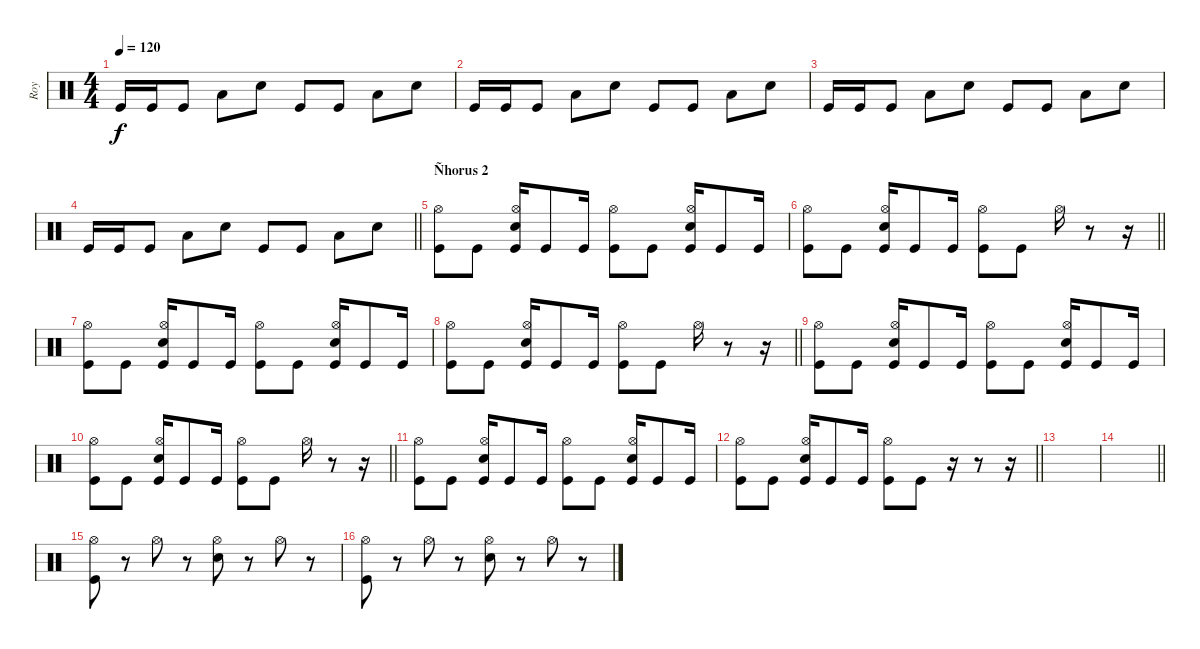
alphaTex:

\track ("Roy" "Roy") {instrument percussion}
\staff {score}
\articulation defaults
\ts (4 4)
\section ("" "")
\tempo 120
\clef neutral
\ks c "Kick (hit)".16{dy f} "Kick (hit)".16 "Kick (hit)".8 "Low Tom (hit)".8 "Metronome (bell)".8 "Kick (hit)".8 "Kick (hit)".8 "Low Tom (hit)".8 "Metronome (bell)".8
|
"Kick (hit)".16 "Kick (hit)".16 "Kick (hit)".8 "Low Tom (hit)".8 "Metronome (bell)".8 "Kick (hit)".8 "Kick (hit)".8 "Low Tom (hit)".8 "Metronome (bell)".8 |
"Kick (hit)".16 "Kick (hit)".16 "Kick (hit)".8 "Low Tom (hit)".8 "Metronome (bell)".8 "Kick (hit)".8 "Kick (hit)".8 "Low Tom (hit)".8 "Metronome (bell)".8 |
\barLineRight lightlight "Kick (hit)".16 "Kick (hit)".16 "Kick (hit)".8 "Low Tom (hit)".8 "Metronome (bell)".8 "Kick (hit)".8 "Kick (hit)".8 "Low Tom (hit)".8 "Metronome (bell)".8
|
\section ("" "Ñhorus 2")
("Hi-Hat (open)" "Kick (hit)").8 "Kick (hit)".8 ("Hi-Hat (open)" "Electric Snare (hit)" "Kick (hit)").16 "Kick (hit)".8 "Kick (hit)".16 ("Hi-Hat (open)" "Kick (hit)").8 "Kick (hit)".8 ("Hi-Hat (open)" "Electric Snare (hit)" "Kick (hit)").16 "Kick (hit)".8 "Kick (hit)".16 |
\barLineRight lightlight
("Hi-Hat (open)" "Kick (hit)").8 "Kick (hit)".8 ("Hi-Hat (open)" "Electric Snare (hit)" "Kick (hit)").16 "Kick (hit)".8 "Kick (hit)".16 ("Hi-Hat (open)" "Kick (hit)").8 "Kick (hit)".8 "Hi-Hat (open)".16 r.8 r.16 |
("Hi-Hat (open)" "Kick (hit)").8 "Kick (hit)".8 ("Hi-Hat (open)" "Electric Snare (hit)" "Kick (hit)").16 "Kick (hit)".8 "Kick (hit)".16 ("Hi-Hat (open)" "Kick (hit)").8 "Kick (hit)".8 ("Hi-Hat (open)" "Electric Snare (hit)" "Kick (hit)").16 "Kick (hit)".8 "Kick (hit)".16 |
\barLineRight lightlight
("Hi-Hat (open)" "Kick (hit)").8 "Kick (hit)".8 ("Hi-Hat (open)" "Electric Snare (hit)" "Kick (hit)").16 "Kick (hit)".8 "Kick (hit)".16 ("Hi-Hat (open)" "Kick (hit)").8 "Kick (hit)".8 "Hi-Hat (open)".16 r.8 r.16 |
("Hi-Hat (open)" "Kick (hit)").8 "Kick (hit)".8 ("Hi-Hat (open)" "Electric Snare (hit)" "Kick (hit)").16 "Kick (hit)".8 "Kick (hit)".16 ("Hi-Hat (open)" "Kick (hit)").8 "Kick (hit)".8 ("Hi-Hat (open)" "Electric Snare (hit)" "Kick (hit)").16 "Kick (hit)".8 "Kick (hit)".16 |
\barLineRight lightlight
("Hi-Hat (open)" "Kick (hit)").8 "Kick (hit)".8 ("Hi-Hat (open)" "Electric Snare (hit)" "Kick (hit)").16 "Kick (hit)".8 "Kick (hit)".16 ("Hi-Hat (open)" "Kick (hit)").8 "Kick (hit)".8 "Hi-Hat (open)".16 r.8 r.16 |
("Hi-Hat (open)" "Kick (hit)").8 "Kick (hit)".8 ("Hi-Hat (open)" "Electric Snare (hit)" "Kick (hit)").16 "Kick (hit)".8 "Kick (hit)".16 ("Hi-Hat (open)" "Kick (hit)").8 "Kick (hit)".8 ("Hi-Hat (open)" "Electric Snare (hit)" "Kick (hit)").16 "Kick (hit)".8 "Kick (hit)".16 |
\barLineRight lightlight
("Hi-Hat (open)" "Kick (hit)").8 "Kick (hit)".8 ("Hi-Hat (open)" "Electric Snare (hit)" "Kick (hit)").16 "Kick (hit)".8 "Kick (hit)".16 ("Hi-Hat (open)" "Kick (hit)").8 "Kick (hit)".8 r.16 r.8 r.16 |
|
\barLineRight lightlight
|
\section ("" "")
("Hi-Hat (open)" "Kick (hit)").8 r.8 "Hi-Hat (open)".8 r.8 ("Hi-Hat (open)" "Electric Snare (hit)").8 r.8 "Hi-Hat (open)".8 r.8 |
("Hi-Hat (open)" "Kick (hit)").8 r.8 "Hi-Hat (open)".8 r.8 ("Hi-Hat (open)" "Electric Snare (hit)").8 r.8 "Hi-Hat (open)".8 r.8
